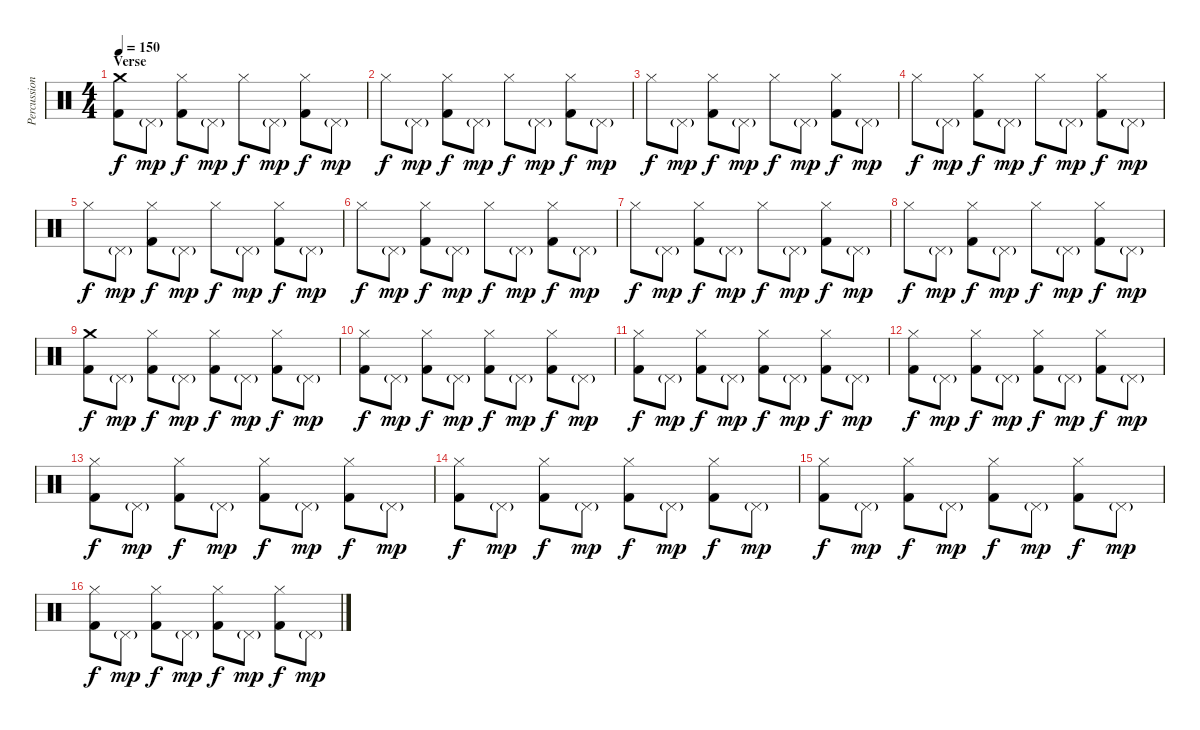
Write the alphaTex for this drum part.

\track ("Percussion" "Percussion") {instrument percussion}
\staff {score}
\articulation defaults
\ts (4 4)
\section ("" "Verse ")
\tempo 150
\clef neutral
\ks c
("Crash medium (hit)" "Kick (hit) 2").8{dy f} "Pedal Hi-Hat (hit)"{g}.8{dy mp} ("Hi-Hat (closed)" "Kick (hit) 2").8{dy f} "Pedal Hi-Hat (hit)"{g}.8{dy mp} "Hi-Hat (closed)".8{dy f} "Pedal Hi-Hat (hit)"{g}.8{dy mp} ("Hi-Hat (closed)" "Kick (hit) 2").8{dy f} "Pedal Hi-Hat (hit)"{g}.8{dy mp} |
"Hi-Hat (closed)".8{dy f} "Pedal Hi-Hat (hit)"{g}.8{dy mp} ("Hi-Hat (closed)" "Kick (hit) 2").8{dy f} "Pedal Hi-Hat (hit)"{g}.8{dy mp} "Hi-Hat (closed)".8{dy f} "Pedal Hi-Hat (hit)"{g}.8{dy mp} ("Hi-Hat (closed)" "Kick (hit) 2").8{dy f} "Pedal Hi-Hat (hit)"{g}.8{dy mp} |
"Hi-Hat (closed)".8{dy f} "Pedal Hi-Hat (hit)"{g}.8{dy mp} ("Hi-Hat (closed)" "Kick (hit) 2").8{dy f} "Pedal Hi-Hat (hit)"{g}.8{dy mp} "Hi-Hat (closed)".8{dy f} "Pedal Hi-Hat (hit)"{g}.8{dy mp} ("Hi-Hat (closed)" "Kick (hit) 2").8{dy f} "Pedal Hi-Hat (hit)"{g}.8{dy mp} |
"Hi-Hat (closed)".8{dy f} "Pedal Hi-Hat (hit)"{g}.8{dy mp} ("Hi-Hat (closed)" "Kick (hit) 2").8{dy f} "Pedal Hi-Hat (hit)"{g}.8{dy mp} "Hi-Hat (closed)".8{dy f} "Pedal Hi-Hat (hit)"{g}.8{dy mp} ("Hi-Hat (closed)" "Kick (hit) 2").8{dy f} "Pedal Hi-Hat (hit)"{g}.8{dy mp} |
"Hi-Hat (closed)".8{dy f} "Pedal Hi-Hat (hit)"{g}.8{dy mp} ("Hi-Hat (closed)" "Kick (hit) 2").8{dy f} "Pedal Hi-Hat (hit)"{g}.8{dy mp} "Hi-Hat (closed)".8{dy f} "Pedal Hi-Hat (hit)"{g}.8{dy mp} ("Hi-Hat (closed)" "Kick (hit) 2").8{dy f} "Pedal Hi-Hat (hit)"{g}.8{dy mp} |
"Hi-Hat (closed)".8{dy f} "Pedal Hi-Hat (hit)"{g}.8{dy mp} ("Hi-Hat (closed)" "Kick (hit) 2").8{dy f} "Pedal Hi-Hat (hit)"{g}.8{dy mp} "Hi-Hat (closed)".8{dy f} "Pedal Hi-Hat (hit)"{g}.8{dy mp} ("Hi-Hat (closed)" "Kick (hit) 2").8{dy f} "Pedal Hi-Hat (hit)"{g}.8{dy mp} |
"Hi-Hat (closed)".8{dy f} "Pedal Hi-Hat (hit)"{g}.8{dy mp} ("Hi-Hat (closed)" "Kick (hit) 2").8{dy f} "Pedal Hi-Hat (hit)"{g}.8{dy mp} "Hi-Hat (closed)".8{dy f} "Pedal Hi-Hat (hit)"{g}.8{dy mp} ("Hi-Hat (closed)" "Kick (hit) 2").8{dy f} "Pedal Hi-Hat (hit)"{g}.8{dy mp} |
"Hi-Hat (closed)".8{dy f} "Pedal Hi-Hat (hit)"{g}.8{dy mp} ("Hi-Hat (closed)" "Kick (hit) 2").8{dy f} "Pedal Hi-Hat (hit)"{g}.8{dy mp} "Hi-Hat (closed)".8{dy f} "Pedal Hi-Hat (hit)"{g}.8{dy mp} ("Hi-Hat (closed)" "Kick (hit) 2").8{dy f} "Pedal Hi-Hat (hit)"{g}.8{dy mp} |
("Crash medium (hit)" "Kick (hit) 2").8{dy f} "Pedal Hi-Hat (hit)"{g}.8{dy mp} ("Hi-Hat (closed)" "Kick (hit) 2").8{dy f} "Pedal Hi-Hat (hit)"{g}.8{dy mp} ("Hi-Hat (closed)" "Kick (hit) 2").8{dy f} "Pedal Hi-Hat (hit)"{g}.8{dy mp} ("Hi-Hat (closed)" "Kick (hit) 2").8{dy f} "Pedal Hi-Hat (hit)"{g}.8{dy mp} |
("Hi-Hat (closed)" "Kick (hit) 2").8{dy f} "Pedal Hi-Hat (hit)"{g}.8{dy mp} ("Hi-Hat (closed)" "Kick (hit) 2").8{dy f} "Pedal Hi-Hat (hit)"{g}.8{dy mp} ("Hi-Hat (closed)" "Kick (hit) 2").8{dy f} "Pedal Hi-Hat (hit)"{g}.8{dy mp} ("Hi-Hat (closed)" "Kick (hit) 2").8{dy f} "Pedal Hi-Hat (hit)"{g}.8{dy mp} |
("Hi-Hat (closed)" "Kick (hit) 2").8{dy f} "Pedal Hi-Hat (hit)"{g}.8{dy mp} ("Hi-Hat (closed)" "Kick (hit) 2").8{dy f} "Pedal Hi-Hat (hit)"{g}.8{dy mp} ("Hi-Hat (closed)" "Kick (hit) 2").8{dy f} "Pedal Hi-Hat (hit)"{g}.8{dy mp} ("Hi-Hat (closed)" "Kick (hit) 2").8{dy f} "Pedal Hi-Hat (hit)"{g}.8{dy mp} |
("Hi-Hat (closed)" "Kick (hit) 2").8{dy f} "Pedal Hi-Hat (hit)"{g}.8{dy mp} ("Hi-Hat (closed)" "Kick (hit) 2").8{dy f} "Pedal Hi-Hat (hit)"{g}.8{dy mp} ("Hi-Hat (closed)" "Kick (hit) 2").8{dy f} "Pedal Hi-Hat (hit)"{g}.8{dy mp} ("Hi-Hat (closed)" "Kick (hit) 2").8{dy f} "Pedal Hi-Hat (hit)"{g}.8{dy mp} |
("Hi-Hat (closed)" "Kick (hit) 2").8{dy f} "Pedal Hi-Hat (hit)"{g}.8{dy mp} ("Hi-Hat (closed)" "Kick (hit) 2").8{dy f} "Pedal Hi-Hat (hit)"{g}.8{dy mp} ("Hi-Hat (closed)" "Kick (hit) 2").8{dy f} "Pedal Hi-Hat (hit)"{g}.8{dy mp} ("Hi-Hat (closed)" "Kick (hit) 2").8{dy f} "Pedal Hi-Hat (hit)"{g}.8{dy mp} |
("Hi-Hat (closed)" "Kick (hit) 2").8{dy f} "Pedal Hi-Hat (hit)"{g}.8{dy mp} ("Hi-Hat (closed)" "Kick (hit) 2").8{dy f} "Pedal Hi-Hat (hit)"{g}.8{dy mp} ("Hi-Hat (closed)" "Kick (hit) 2").8{dy f} "Pedal Hi-Hat (hit)"{g}.8{dy mp} ("Hi-Hat (closed)" "Kick (hit) 2").8{dy f} "Pedal Hi-Hat (hit)"{g}.8{dy mp} |
("Hi-Hat (closed)" "Kick (hit) 2").8{dy f} "Pedal Hi-Hat (hit)"{g}.8{dy mp} ("Hi-Hat (closed)" "Kick (hit) 2").8{dy f} "Pedal Hi-Hat (hit)"{g}.8{dy mp} ("Hi-Hat (closed)" "Kick (hit) 2").8{dy f} "Pedal Hi-Hat (hit)"{g}.8{dy mp} ("Hi-Hat (closed)" "Kick (hit) 2").8{dy f} "Pedal Hi-Hat (hit)"{g}.8{dy mp} |
("Hi-Hat (closed)" "Kick (hit) 2").8{dy f} "Pedal Hi-Hat (hit)"{g}.8{dy mp} ("Hi-Hat (closed)" "Kick (hit) 2").8{dy f} "Pedal Hi-Hat (hit)"{g}.8{dy mp} ("Hi-Hat (closed)" "Kick (hit) 2").8{dy f} "Pedal Hi-Hat (hit)"{g}.8{dy mp} ("Hi-Hat (closed)" "Kick (hit) 2").8{dy f} "Pedal Hi-Hat (hit)"{g}.8{dy mp}
